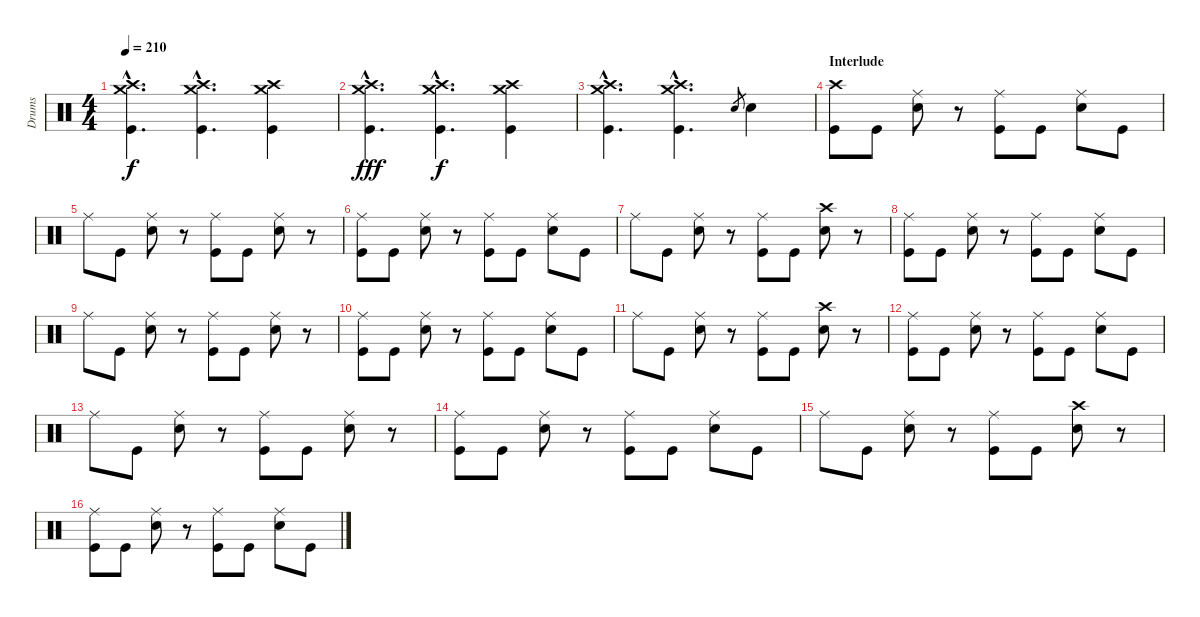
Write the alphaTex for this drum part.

\track ("Drums" "Drums") {instrument percussion}
\staff {score}
\articulation defaults
\ts (4 4)
\tempo 210
\clef neutral
\ks c
("Crash medium (hit)"{hac} "Crash high (hit)"{hac} "Kick (hit)"{hac}).4{d dy f} ("Crash medium (hit)"{hac} "Crash high (hit)"{hac} "Kick (hit)"{hac}).4{d} ("Crash medium (hit)" "Crash high (hit)" "Kick (hit)").4 |
("Crash medium (hit)"{hac} "Crash high (hit)"{hac} "Kick (hit)"{hac}).4{d dy fff} ("Crash medium (hit)"{hac} "Crash high (hit)"{hac} "Kick (hit)"{hac}).4{d dy f} ("Crash medium (hit)" "Crash high (hit)" "Kick (hit)").4 |
("Crash medium (hit)"{hac} "Crash high (hit)"{hac} "Kick (hit)"{hac}).4{d} ("Crash medium (hit)"{hac} "Crash high (hit)"{hac} "Kick (hit)"{hac}).4{d} "Snare (hit) 2".8{gr} "Snare (hit) 2".4 |
\section ("" "Interlude")
("Crash high (hit)" "Kick (hit)").8 "Kick (hit)".8 ("Ride (middle)" "Snare (hit) 2").8 r.8 ("Ride (middle)" "Kick (hit)").8 "Kick (hit)".8 ("Ride (middle)" "Snare (hit) 2").8 "Kick (hit)".8 |
"Ride (middle)".8 "Kick (hit)".8 ("Ride (middle)" "Snare (hit) 2").8 r.8 ("Ride (middle)" "Kick (hit)").8 "Kick (hit)".8 ("Ride (middle)" "Snare (hit) 2").8 r.8 |
("Ride (middle)" "Kick (hit)").8 "Kick (hit)".8 ("Ride (middle)" "Snare (hit) 2").8 r.8 ("Ride (middle)" "Kick (hit)").8 "Kick (hit)".8 ("Ride (middle)" "Snare (hit) 2").8 "Kick (hit)".8 |
"Ride (middle)".8 "Kick (hit)".8 ("Ride (middle)" "Snare (hit) 2").8 r.8 ("Ride (middle)" "Kick (hit)").8 "Kick (hit)".8 ("Crash high (hit)" "Snare (hit) 2").8 r.8 |
("Ride (middle)" "Kick (hit)").8 "Kick (hit)".8 ("Ride (middle)" "Snare (hit) 2").8 r.8 ("Ride (middle)" "Kick (hit)").8 "Kick (hit)".8 ("Ride (middle)" "Snare (hit) 2").8 "Kick (hit)".8 |
"Ride (middle)".8 "Kick (hit)".8 ("Ride (middle)" "Snare (hit) 2").8 r.8 ("Ride (middle)" "Kick (hit)").8 "Kick (hit)".8 ("Ride (middle)" "Snare (hit) 2").8 r.8 |
("Ride (middle)" "Kick (hit)").8 "Kick (hit)".8 ("Ride (middle)" "Snare (hit) 2").8 r.8 ("Ride (middle)" "Kick (hit)").8 "Kick (hit)".8 ("Ride (middle)" "Snare (hit) 2").8 "Kick (hit)".8 |
"Ride (middle)".8 "Kick (hit)".8 ("Ride (middle)" "Snare (hit) 2").8 r.8 ("Ride (middle)" "Kick (hit)").8 "Kick (hit)".8 ("Crash high (hit)" "Snare (hit) 2").8 r.8 |
("Ride (middle)" "Kick (hit)").8 "Kick (hit)".8 ("Ride (middle)" "Snare (hit) 2").8 r.8 ("Ride (middle)" "Kick (hit)").8 "Kick (hit)".8 ("Ride (middle)" "Snare (hit) 2").8 "Kick (hit)".8 |
"Ride (middle)".8 "Kick (hit)".8 ("Ride (middle)" "Snare (hit) 2").8 r.8 ("Ride (middle)" "Kick (hit)").8 "Kick (hit)".8 ("Ride (middle)" "Snare (hit) 2").8 r.8 |
("Ride (middle)" "Kick (hit)").8 "Kick (hit)".8 ("Ride (middle)" "Snare (hit) 2").8 r.8 ("Ride (middle)" "Kick (hit)").8 "Kick (hit)".8 ("Ride (middle)" "Snare (hit) 2").8 "Kick (hit)".8 |
"Ride (middle)".8 "Kick (hit)".8 ("Ride (middle)" "Snare (hit) 2").8 r.8 ("Ride (middle)" "Kick (hit)").8 "Kick (hit)".8 ("Crash high (hit)" "Snare (hit) 2").8 r.8 |
("Ride (middle)" "Kick (hit)").8 "Kick (hit)".8 ("Ride (middle)" "Snare (hit) 2").8 r.8 ("Ride (middle)" "Kick (hit)").8 "Kick (hit)".8 ("Ride (middle)" "Snare (hit) 2").8 "Kick (hit)".8
